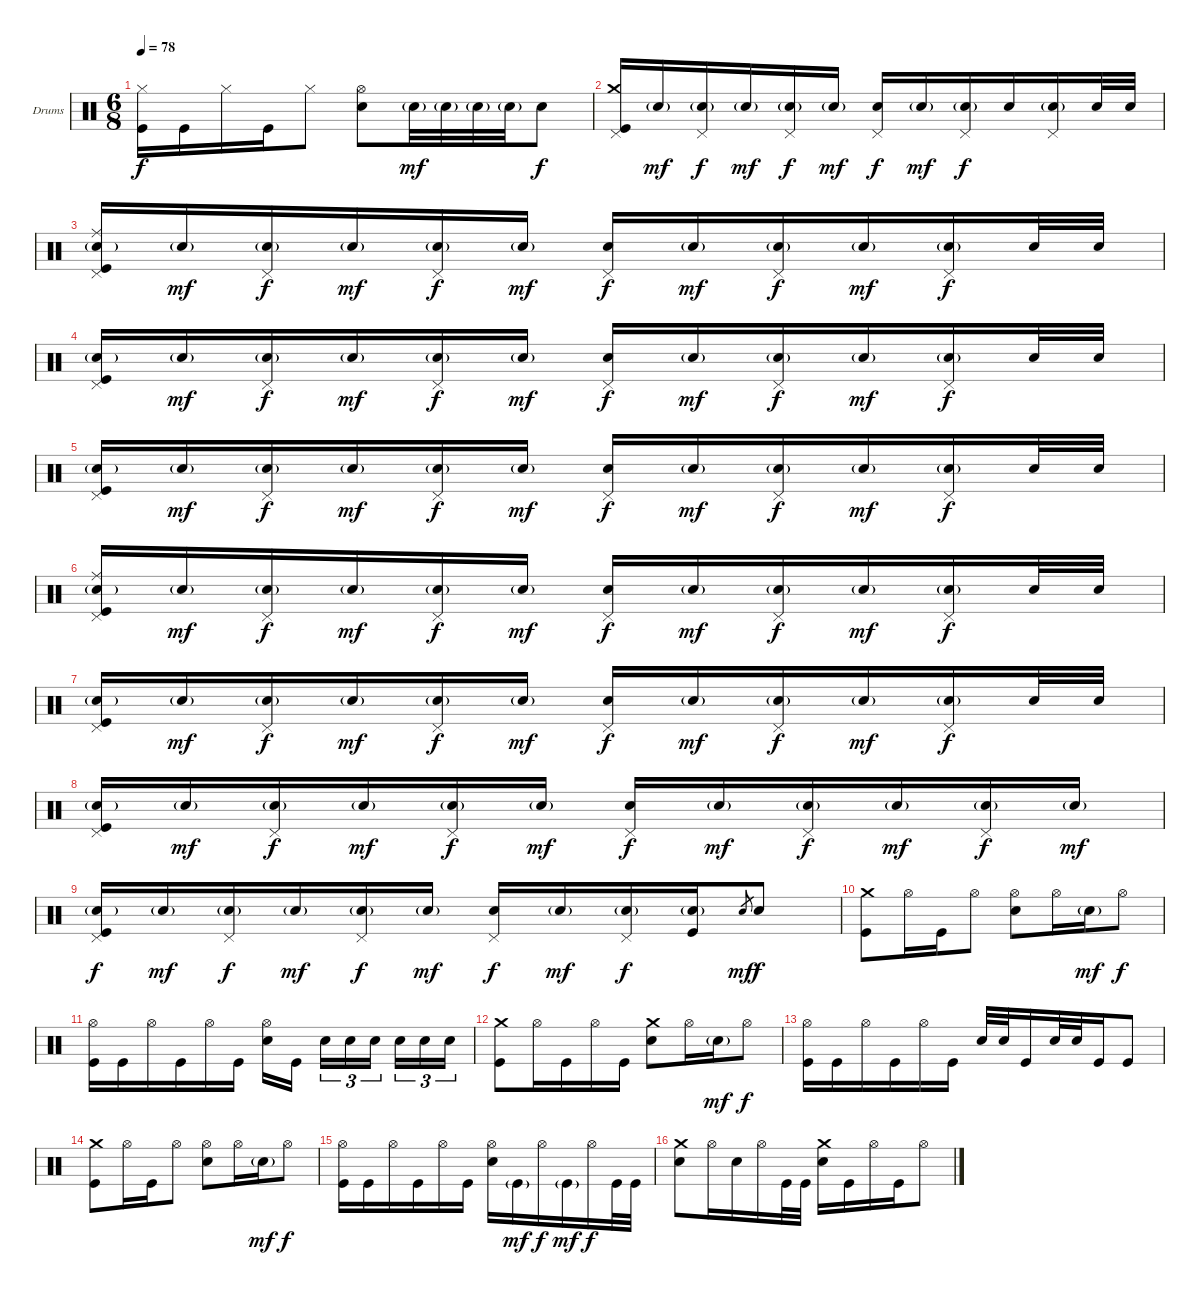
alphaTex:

\defaultSystemsLayout 4
\bracketExtendMode groupsimilarinstruments
\firstSystemTrackNameOrientation horizontal
\otherSystemsTrackNameOrientation horizontal
\track ("Drums" "Drums") {instrument percussion}
\staff {score}
\articulation defaults
\ts (6 8)
\tempo 78
\clef neutral
\scale
0.333333
\ks c
("Hi-Hat (closed)" "Kick (hit)").16{dy f} "Kick (hit)".16 "Hi-Hat (closed)".16 "Kick (hit)".16 "Hi-Hat (closed)".8 ("Hi-Hat (open)" "Snare (hit) 2").8 "Snare (hit) 2"{g}.32{dy mf} "Snare (hit) 2"{g}.32 "Snare (hit) 2"{g}.32 "Snare (hit) 2"{g}.32 "Snare (hit) 2".8{dy f} |
\scale
0.333333 ("Crash medium (hit)" "Pedal Hi-Hat (hit)" "Kick (hit)").16 "Snare (hit) 2"{g}.16{dy mf} ("Pedal Hi-Hat (hit)" "Snare (hit) 2"{g}).16{dy f} "Snare (hit) 2"{g}.16{dy mf} ("Pedal Hi-Hat (hit)" "Snare (hit) 2"{g}).16{dy f} "Snare (hit) 2"{g}.16{dy mf} ("Pedal Hi-Hat (hit)" "Snare (hit) 2").16{dy f} "Snare (hit) 2"{g}.16{dy mf} ("Pedal Hi-Hat (hit)" "Snare (hit) 2"{g}).16{dy f} "Snare (hit) 2".16 ("Pedal Hi-Hat (hit)" "Snare (hit) 2"{g}).16 "Snare (hit) 2".32 "Snare (hit) 2".32 |
\scale
0.333333 ("Ride (middle)" "Pedal Hi-Hat (hit)" "Snare (hit) 2"{g} "Kick (hit)").16 "Snare (hit) 2"{g}.16{dy mf} ("Pedal Hi-Hat (hit)" "Snare (hit) 2"{g}).16{dy f} "Snare (hit) 2"{g}.16{dy mf} ("Pedal Hi-Hat (hit)" "Snare (hit) 2"{g}).16{dy f} "Snare (hit) 2"{g}.16{dy mf} ("Pedal Hi-Hat (hit)" "Snare (hit) 2").16{dy f} "Snare (hit) 2"{g}.16{dy mf} ("Pedal Hi-Hat (hit)" "Snare (hit) 2"{g}).16{dy f} "Snare (hit) 2"{g}.16{dy mf} ("Pedal Hi-Hat (hit)" "Snare (hit) 2"{g}).16{dy f} "Snare (hit) 2".32 "Snare (hit) 2".32 |
\scale
0.333333 ("Pedal Hi-Hat (hit)" "Snare (hit) 2"{g} "Kick (hit)").16 "Snare (hit) 2"{g}.16{dy mf} ("Pedal Hi-Hat (hit)" "Snare (hit) 2"{g}).16{dy f} "Snare (hit) 2"{g}.16{dy mf} ("Pedal Hi-Hat (hit)" "Snare (hit) 2"{g}).16{dy f} "Snare (hit) 2"{g}.16{dy mf} ("Pedal Hi-Hat (hit)" "Snare (hit) 2").16{dy f} "Snare (hit) 2"{g}.16{dy mf} ("Pedal Hi-Hat (hit)" "Snare (hit) 2"{g}).16{dy f} "Snare (hit) 2"{g}.16{dy mf} ("Pedal Hi-Hat (hit)" "Snare (hit) 2"{g}).16{dy f} "Snare (hit) 2".32 "Snare (hit) 2".32 |
\scale
0.333333 ("Pedal Hi-Hat (hit)" "Snare (hit) 2"{g} "Kick (hit)").16 "Snare (hit) 2"{g}.16{dy mf} ("Pedal Hi-Hat (hit)" "Snare (hit) 2"{g}).16{dy f} "Snare (hit) 2"{g}.16{dy mf} ("Pedal Hi-Hat (hit)" "Snare (hit) 2"{g}).16{dy f} "Snare (hit) 2"{g}.16{dy mf} ("Pedal Hi-Hat (hit)" "Snare (hit) 2").16{dy f} "Snare (hit) 2"{g}.16{dy mf} ("Pedal Hi-Hat (hit)" "Snare (hit) 2"{g}).16{dy f} "Snare (hit) 2"{g}.16{dy mf} ("Pedal Hi-Hat (hit)" "Snare (hit) 2"{g}).16{dy f} "Snare (hit) 2".32 "Snare (hit) 2".32 |
\scale
0.333333 ("Ride (middle)" "Pedal Hi-Hat (hit)" "Snare (hit) 2"{g} "Kick (hit)").16 "Snare (hit) 2"{g}.16{dy mf} ("Pedal Hi-Hat (hit)" "Snare (hit) 2"{g}).16{dy f} "Snare (hit) 2"{g}.16{dy mf} ("Pedal Hi-Hat (hit)" "Snare (hit) 2"{g}).16{dy f} "Snare (hit) 2"{g}.16{dy mf} ("Pedal Hi-Hat (hit)" "Snare (hit) 2").16{dy f} "Snare (hit) 2"{g}.16{dy mf} ("Pedal Hi-Hat (hit)" "Snare (hit) 2"{g}).16{dy f} "Snare (hit) 2"{g}.16{dy mf} ("Pedal Hi-Hat (hit)" "Snare (hit) 2"{g}).16{dy f} "Snare (hit) 2".32 "Snare (hit) 2".32 |
\scale
0.333333 ("Pedal Hi-Hat (hit)" "Snare (hit) 2"{g} "Kick (hit)").16 "Snare (hit) 2"{g}.16{dy mf} ("Pedal Hi-Hat (hit)" "Snare (hit) 2"{g}).16{dy f} "Snare (hit) 2"{g}.16{dy mf} ("Pedal Hi-Hat (hit)" "Snare (hit) 2"{g}).16{dy f} "Snare (hit) 2"{g}.16{dy mf} ("Pedal Hi-Hat (hit)" "Snare (hit) 2").16{dy f} "Snare (hit) 2"{g}.16{dy mf} ("Pedal Hi-Hat (hit)" "Snare (hit) 2"{g}).16{dy f} "Snare (hit) 2"{g}.16{dy mf} ("Pedal Hi-Hat (hit)" "Snare (hit) 2"{g}).16{dy f} "Snare (hit) 2".32 "Snare (hit) 2".32 |
\scale
0.333333 ("Pedal Hi-Hat (hit)" "Snare (hit) 2"{g} "Kick (hit)").16 "Snare (hit) 2"{g}.16{dy mf} ("Pedal Hi-Hat (hit)" "Snare (hit) 2"{g}).16{dy f} "Snare (hit) 2"{g}.16{dy mf} ("Pedal Hi-Hat (hit)" "Snare (hit) 2"{g}).16{dy f} "Snare (hit) 2"{g}.16{dy mf} ("Pedal Hi-Hat (hit)" "Snare (hit) 2").16{dy f} "Snare (hit) 2"{g}.16{dy mf} ("Pedal Hi-Hat (hit)" "Snare (hit) 2"{g}).16{dy f} "Snare (hit) 2"{g}.16{dy mf} ("Pedal Hi-Hat (hit)" "Snare (hit) 2"{g}).16{dy f} "Snare (hit) 2"{g}.16{dy mf} |
\scale
0.333333 ("Pedal Hi-Hat (hit)" "Snare (hit) 2"{g} "Kick (hit)").16{dy f} "Snare (hit) 2"{g}.16{dy mf} ("Pedal Hi-Hat (hit)" "Snare (hit) 2"{g}).16{dy f} "Snare (hit) 2"{g}.16{dy mf} ("Pedal Hi-Hat (hit)" "Snare (hit) 2"{g}).16{dy f} "Snare (hit) 2"{g}.16{dy mf} ("Pedal Hi-Hat (hit)" "Snare (hit) 2").16{dy f} "Snare (hit) 2"{g}.16{dy mf} ("Pedal Hi-Hat (hit)" "Snare (hit) 2"{g}).16{dy f} ("Snare (hit) 2"{g} "Kick (hit)").16 "Snare (hit) 2".8{gr dy mf} "Snare (hit) 2".8{dy f} |
\scale
0.333333 ("Crash medium (hit)" "Kick (hit)").8 "Hi-Hat (open)".16 "Kick (hit)".16 "Hi-Hat (open)".8 ("Hi-Hat (open)" "Snare (hit) 2").8 "Hi-Hat (open)".16 "Snare (hit) 2"{g}.16{dy mf} "Hi-Hat (open)".8{dy f} |
\scale
0.333333 ("Hi-Hat (open)" "Kick (hit)").16 "Kick (hit)".16 "Hi-Hat (open)".16 "Kick (hit)".16 "Hi-Hat (open)".16 "Kick (hit)".16 ("Hi-Hat (open)" "Snare (hit) 2").16 "Kick (hit)".16 "Snare (hit) 2".16{tu (3 2)} "Snare (hit) 2".16{tu (3 2)} "Snare (hit) 2".16{tu (3 2)} "Snare (hit) 2".16{tu (3 2)} "Snare (hit) 2".16{tu (3 2)} "Snare (hit) 2".16{tu (3 2)} |
\scale
0.333333 ("Crash medium (hit)" "Kick (hit)").8 "Hi-Hat (open)".16 "Kick (hit)".16 "Hi-Hat (open)".16 "Kick (hit)".16 ("Crash medium (hit)" "Snare (hit) 2").8 "Hi-Hat (open)".16 "Snare (hit) 2"{g}.16{dy mf} "Hi-Hat (open)".8{dy f} |
\scale
0.333333 ("Hi-Hat (open)" "Kick (hit)").16 "Kick (hit)".16 "Hi-Hat (open)".16 "Kick (hit)".16 "Hi-Hat (open)".16 "Kick (hit)".16 "Snare (hit) 2".32 "Snare (hit) 2".32 "Kick (hit)".16 "Snare (hit) 2".32 "Snare (hit) 2".32 "Kick (hit)".16 "Kick (hit)".8 |
\scale
0.333333 ("Crash medium (hit)" "Kick (hit)").8 "Hi-Hat (open)".16 "Kick (hit)".16 "Hi-Hat (open)".8 ("Hi-Hat (open)" "Snare (hit) 2").8 "Hi-Hat (open)".16 "Snare (hit) 2"{g}.16{dy mf} "Hi-Hat (open)".8{dy f} |
\scale
0.333333 ("Hi-Hat (open)" "Kick (hit)").16 "Kick (hit)".16 "Hi-Hat (open)".16 "Kick (hit)".16 "Hi-Hat (open)".16 "Kick (hit)".16 ("Hi-Hat (open)" "Snare (hit) 2").16 "Kick (hit)"{g}.16{dy mf} "Hi-Hat (open)".16{dy f} "Kick (hit)"{g}.16{dy mf} "Hi-Hat (open)".16{dy f} "Kick (hit)".32 "Kick (hit)".32 |
\scale
0.333333 ("Crash medium (hit)" "Snare (hit) 2").8 "Hi-Hat (open)".16 "Snare (hit) 2".16 "Hi-Hat (open)".16 "Kick (hit)".32 "Kick (hit)".32 ("Crash medium (hit)" "Snare (hit) 2").16 "Kick (hit)".16 "Hi-Hat (open)".16 "Kick (hit)".16 "Hi-Hat (open)".8
